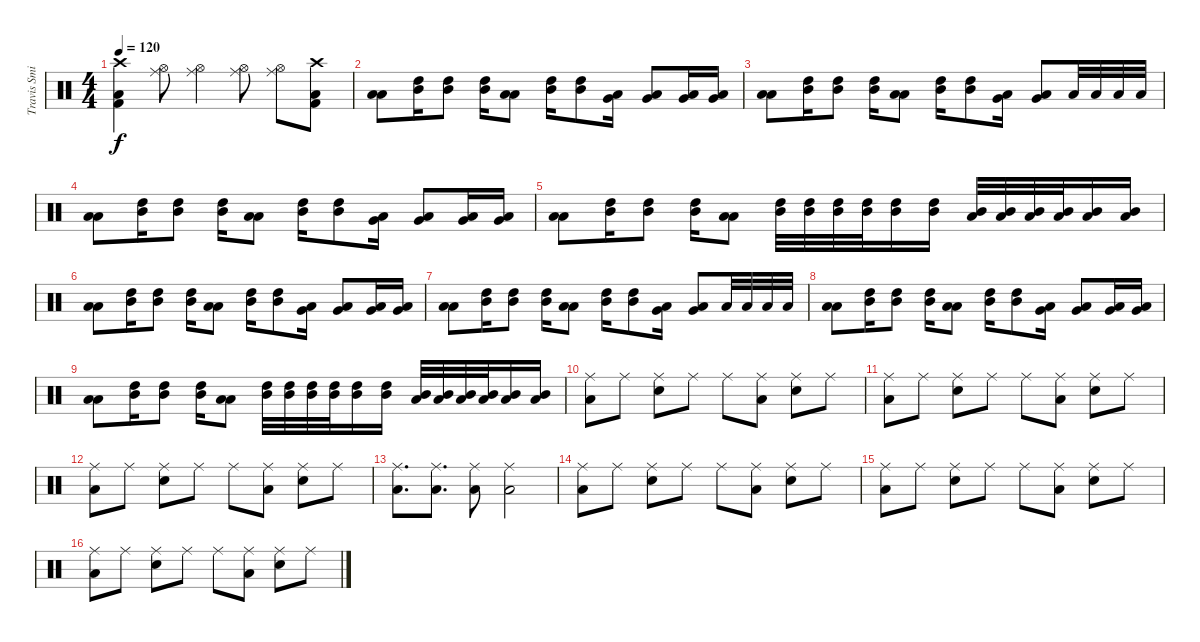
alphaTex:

\track ("Travis Smith" "Travis Smi") {instrument percussion}
\staff {score}
\articulation defaults
\ts (4 4)
\tempo 120
\clef neutral
\ks c
("Crash high (hit)" "Low Floor Tom (hit)" "Kick (hit) 2").4{dy f} ("Ride (middle)" "Hi-Hat (open)").8 ("Ride (middle)" "Hi-Hat (open)").4 ("Ride (middle)" "Hi-Hat (open)").8 ("Ride (middle)" "Hi-Hat (open)").8 ("Crash high (hit)" "Low Floor Tom (hit)" "Kick (hit) 2").8 |
("Low Tom (hit)" "Low Floor Tom (hit)").8 ("High Tom (hit)" "Mid Tom (hit)").16 ("High Tom (hit)" "Mid Tom (hit)").8 ("High Tom (hit)" "Mid Tom (hit)").16 ("Low Tom (hit)" "Low Floor Tom (hit)").8 ("High Tom (hit)" "Mid Tom (hit)").16 ("High Tom (hit)" "Mid Tom (hit)").8 ("Very Low Tom (hit)" "Low Floor Tom (hit)").16 ("Very Low Tom (hit)" "Low Floor Tom (hit)").8 ("Low Tom (hit)" "Very Low Tom (hit)").16 ("Low Tom (hit)" "Very Low Tom (hit)").16 |
("Low Tom (hit)" "Low Floor Tom (hit)").8 ("High Tom (hit)" "Mid Tom (hit)").16 ("High Tom (hit)" "Mid Tom (hit)").8 ("High Tom (hit)" "Mid Tom (hit)").16 ("Low Tom (hit)" "Low Floor Tom (hit)").8 ("High Tom (hit)" "Mid Tom (hit)").16 ("High Tom (hit)" "Mid Tom (hit)").8 ("Very Low Tom (hit)" "Low Floor Tom (hit)").16 ("Very Low Tom (hit)" "Low Floor Tom (hit)").8 "Low Tom (hit)".32 "Low Tom (hit)".32 "Low Tom (hit)".32 "Low Tom (hit)".32 |
("Low Tom (hit)" "Low Floor Tom (hit)").8 ("High Tom (hit)" "Mid Tom (hit)").16 ("High Tom (hit)" "Mid Tom (hit)").8 ("High Tom (hit)" "Mid Tom (hit)").16 ("Low Tom (hit)" "Low Floor Tom (hit)").8 ("High Tom (hit)" "Mid Tom (hit)").16 ("High Tom (hit)" "Mid Tom (hit)").8 ("Very Low Tom (hit)" "Low Floor Tom (hit)").16 ("Very Low Tom (hit)" "Low Floor Tom (hit)").8 ("Low Tom (hit)" "Very Low Tom (hit)").16 ("Low Tom (hit)" "Very Low Tom (hit)").16 |
("Low Tom (hit)" "Low Floor Tom (hit)").8 ("High Tom (hit)" "Mid Tom (hit)").16 ("High Tom (hit)" "Mid Tom (hit)").8 ("High Tom (hit)" "Mid Tom (hit)").16 ("Low Tom (hit)" "Low Floor Tom (hit)").8 ("High Tom (hit)" "Mid Tom (hit)").32 ("High Tom (hit)" "Mid Tom (hit)").32 ("High Tom (hit)" "Mid Tom (hit)").32 ("High Tom (hit)" "Mid Tom (hit)").32 ("High Tom (hit)" "Mid Tom (hit)").16 ("High Tom (hit)" "Mid Tom (hit)").16 ("Mid Tom (hit)" "Low Tom (hit)").32 ("Mid Tom (hit)" "Low Tom (hit)").32 ("Mid Tom (hit)" "Low Tom (hit)").32 ("Mid Tom (hit)" "Low Tom (hit)").32 ("Mid Tom (hit)" "Low Tom (hit)").16 ("Mid Tom (hit)" "Low Tom (hit)").16 |
("Low Tom (hit)" "Low Floor Tom (hit)").8 ("High Tom (hit)" "Mid Tom (hit)").16 ("High Tom (hit)" "Mid Tom (hit)").8 ("High Tom (hit)" "Mid Tom (hit)").16 ("Low Tom (hit)" "Low Floor Tom (hit)").8 ("High Tom (hit)" "Mid Tom (hit)").16 ("High Tom (hit)" "Mid Tom (hit)").8 ("Very Low Tom (hit)" "Low Floor Tom (hit)").16 ("Very Low Tom (hit)" "Low Floor Tom (hit)").8 ("Low Tom (hit)" "Very Low Tom (hit)").16 ("Low Tom (hit)" "Very Low Tom (hit)").16 |
("Low Tom (hit)" "Low Floor Tom (hit)").8 ("High Tom (hit)" "Mid Tom (hit)").16 ("High Tom (hit)" "Mid Tom (hit)").8 ("High Tom (hit)" "Mid Tom (hit)").16 ("Low Tom (hit)" "Low Floor Tom (hit)").8 ("High Tom (hit)" "Mid Tom (hit)").16 ("High Tom (hit)" "Mid Tom (hit)").8 ("Very Low Tom (hit)" "Low Floor Tom (hit)").16 ("Very Low Tom (hit)" "Low Floor Tom (hit)").8 "Low Tom (hit)".32 "Low Tom (hit)".32 "Low Tom (hit)".32 "Low Tom (hit)".32 |
("Low Tom (hit)" "Low Floor Tom (hit)").8 ("High Tom (hit)" "Mid Tom (hit)").16 ("High Tom (hit)" "Mid Tom (hit)").8 ("High Tom (hit)" "Mid Tom (hit)").16 ("Low Tom (hit)" "Low Floor Tom (hit)").8 ("High Tom (hit)" "Mid Tom (hit)").16 ("High Tom (hit)" "Mid Tom (hit)").8 ("Very Low Tom (hit)" "Low Floor Tom (hit)").16 ("Very Low Tom (hit)" "Low Floor Tom (hit)").8 ("Low Tom (hit)" "Very Low Tom (hit)").16 ("Low Tom (hit)" "Very Low Tom (hit)").16 |
("Low Tom (hit)" "Low Floor Tom (hit)").8 ("High Tom (hit)" "Mid Tom (hit)").16 ("High Tom (hit)" "Mid Tom (hit)").8 ("High Tom (hit)" "Mid Tom (hit)").16 ("Low Tom (hit)" "Low Floor Tom (hit)").8 ("High Tom (hit)" "Mid Tom (hit)").32 ("High Tom (hit)" "Mid Tom (hit)").32 ("High Tom (hit)" "Mid Tom (hit)").32 ("High Tom (hit)" "Mid Tom (hit)").32 ("High Tom (hit)" "Mid Tom (hit)").16 ("High Tom (hit)" "Mid Tom (hit)").16 ("Mid Tom (hit)" "Low Tom (hit)").32 ("Mid Tom (hit)" "Low Tom (hit)").32 ("Mid Tom (hit)" "Low Tom (hit)").32 ("Mid Tom (hit)" "Low Tom (hit)").32 ("Mid Tom (hit)" "Low Tom (hit)").16 ("Mid Tom (hit)" "Low Tom (hit)").16 |
("Ride (middle)" "Low Floor Tom (hit)").8 "Ride (middle)".8 ("Ride (middle)" "Electric Snare (hit)").8 "Ride (middle)".8 "Ride (middle)".8 ("Ride (middle)" "Low Floor Tom (hit)").8 ("Ride (middle)" "Electric Snare (hit)").8 "Ride (middle)".8 |
("Ride (middle)" "Low Floor Tom (hit)").8 "Ride (middle)".8 ("Ride (middle)" "Electric Snare (hit)").8 "Ride (middle)".8 "Ride (middle)".8 ("Ride (middle)" "Low Floor Tom (hit)").8 ("Ride (middle)" "Electric Snare (hit)").8 "Ride (middle)".8 |
("Ride (middle)" "Low Floor Tom (hit)").8 "Ride (middle)".8 ("Ride (middle)" "Electric Snare (hit)").8 "Ride (middle)".8 "Ride (middle)".8 ("Ride (middle)" "Low Floor Tom (hit)").8 ("Ride (middle)" "Electric Snare (hit)").8 "Ride (middle)".8 |
("Ride (middle)" "Low Floor Tom (hit)").8{d} ("Ride (middle)" "Low Floor Tom (hit)").8{d} ("Ride (middle)" "Low Floor Tom (hit)").8 ("Ride (middle)" "Low Floor Tom (hit)").2 |
("Ride (middle)" "Low Floor Tom (hit)").8 "Ride (middle)".8 ("Ride (middle)" "Electric Snare (hit)").8 "Ride (middle)".8 "Ride (middle)".8 ("Ride (middle)" "Low Floor Tom (hit)").8 ("Ride (middle)" "Electric Snare (hit)").8 "Ride (middle)".8 |
("Ride (middle)" "Low Floor Tom (hit)").8 "Ride (middle)".8 ("Ride (middle)" "Electric Snare (hit)").8 "Ride (middle)".8 "Ride (middle)".8 ("Ride (middle)" "Low Floor Tom (hit)").8 ("Ride (middle)" "Electric Snare (hit)").8 "Ride (middle)".8 |
("Ride (middle)" "Low Floor Tom (hit)").8 "Ride (middle)".8 ("Ride (middle)" "Electric Snare (hit)").8 "Ride (middle)".8 "Ride (middle)".8 ("Ride (middle)" "Low Floor Tom (hit)").8 ("Ride (middle)" "Electric Snare (hit)").8 "Ride (middle)".8
